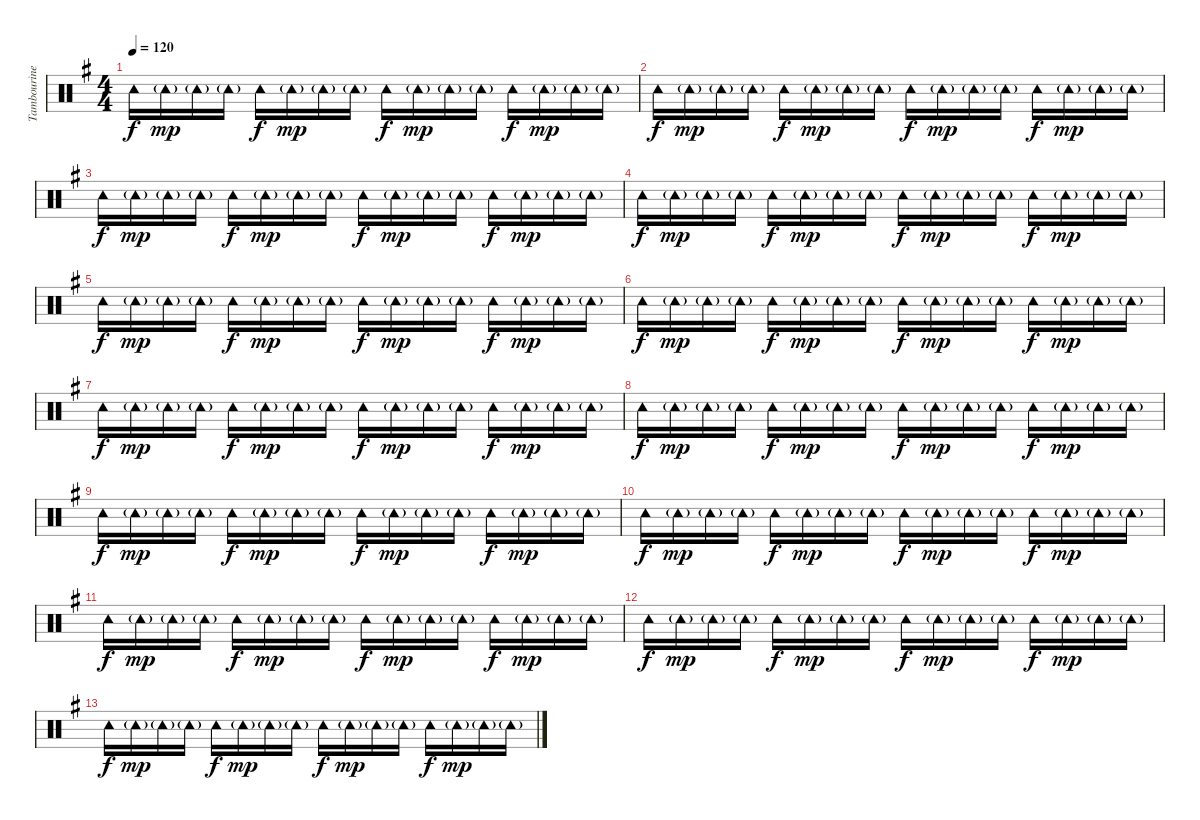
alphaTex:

\track ("Tambourine" "Tambourine") {instrument percussion}
\staff {score}
\articulation defaults
\ts (4 4)
\tempo 120
\clef neutral
\ks g "Tambourine (hit)".16{dy f} "Tambourine (hit)"{g}.16{dy mp} "Tambourine (hit)"{g}.16 "Tambourine (hit)"{g}.16 "Tambourine (hit)".16{dy f} "Tambourine (hit)"{g}.16{dy mp} "Tambourine (hit)"{g}.16 "Tambourine (hit)"{g}.16 "Tambourine (hit)".16{dy f} "Tambourine (hit)"{g}.16{dy mp} "Tambourine (hit)"{g}.16 "Tambourine (hit)"{g}.16 "Tambourine (hit)".16{dy f} "Tambourine (hit)"{g}.16{dy mp} "Tambourine (hit)"{g}.16 "Tambourine (hit)"{g}.16
|
"Tambourine (hit)".16{dy f} "Tambourine (hit)"{g}.16{dy mp} "Tambourine (hit)"{g}.16 "Tambourine (hit)"{g}.16 "Tambourine (hit)".16{dy f} "Tambourine (hit)"{g}.16{dy mp} "Tambourine (hit)"{g}.16 "Tambourine (hit)"{g}.16 "Tambourine (hit)".16{dy f} "Tambourine (hit)"{g}.16{dy mp} "Tambourine (hit)"{g}.16 "Tambourine (hit)"{g}.16 "Tambourine (hit)".16{dy f} "Tambourine (hit)"{g}.16{dy mp} "Tambourine (hit)"{g}.16 "Tambourine (hit)"{g}.16 |
"Tambourine (hit)".16{dy f} "Tambourine (hit)"{g}.16{dy mp} "Tambourine (hit)"{g}.16 "Tambourine (hit)"{g}.16 "Tambourine (hit)".16{dy f} "Tambourine (hit)"{g}.16{dy mp} "Tambourine (hit)"{g}.16 "Tambourine (hit)"{g}.16 "Tambourine (hit)".16{dy f} "Tambourine (hit)"{g}.16{dy mp} "Tambourine (hit)"{g}.16 "Tambourine (hit)"{g}.16 "Tambourine (hit)".16{dy f} "Tambourine (hit)"{g}.16{dy mp} "Tambourine (hit)"{g}.16 "Tambourine (hit)"{g}.16 |
"Tambourine (hit)".16{dy f} "Tambourine (hit)"{g}.16{dy mp} "Tambourine (hit)"{g}.16 "Tambourine (hit)"{g}.16 "Tambourine (hit)".16{dy f} "Tambourine (hit)"{g}.16{dy mp} "Tambourine (hit)"{g}.16 "Tambourine (hit)"{g}.16 "Tambourine (hit)".16{dy f} "Tambourine (hit)"{g}.16{dy mp} "Tambourine (hit)"{g}.16 "Tambourine (hit)"{g}.16 "Tambourine (hit)".16{dy f} "Tambourine (hit)"{g}.16{dy mp} "Tambourine (hit)"{g}.16 "Tambourine (hit)"{g}.16 |
"Tambourine (hit)".16{dy f} "Tambourine (hit)"{g}.16{dy mp} "Tambourine (hit)"{g}.16 "Tambourine (hit)"{g}.16 "Tambourine (hit)".16{dy f} "Tambourine (hit)"{g}.16{dy mp} "Tambourine (hit)"{g}.16 "Tambourine (hit)"{g}.16 "Tambourine (hit)".16{dy f} "Tambourine (hit)"{g}.16{dy mp} "Tambourine (hit)"{g}.16 "Tambourine (hit)"{g}.16 "Tambourine (hit)".16{dy f} "Tambourine (hit)"{g}.16{dy mp} "Tambourine (hit)"{g}.16 "Tambourine (hit)"{g}.16 |
"Tambourine (hit)".16{dy f} "Tambourine (hit)"{g}.16{dy mp} "Tambourine (hit)"{g}.16 "Tambourine (hit)"{g}.16 "Tambourine (hit)".16{dy f} "Tambourine (hit)"{g}.16{dy mp} "Tambourine (hit)"{g}.16 "Tambourine (hit)"{g}.16 "Tambourine (hit)".16{dy f} "Tambourine (hit)"{g}.16{dy mp} "Tambourine (hit)"{g}.16 "Tambourine (hit)"{g}.16 "Tambourine (hit)".16{dy f} "Tambourine (hit)"{g}.16{dy mp} "Tambourine (hit)"{g}.16 "Tambourine (hit)"{g}.16 |
"Tambourine (hit)".16{dy f} "Tambourine (hit)"{g}.16{dy mp} "Tambourine (hit)"{g}.16 "Tambourine (hit)"{g}.16 "Tambourine (hit)".16{dy f} "Tambourine (hit)"{g}.16{dy mp} "Tambourine (hit)"{g}.16 "Tambourine (hit)"{g}.16 "Tambourine (hit)".16{dy f} "Tambourine (hit)"{g}.16{dy mp} "Tambourine (hit)"{g}.16 "Tambourine (hit)"{g}.16 "Tambourine (hit)".16{dy f} "Tambourine (hit)"{g}.16{dy mp} "Tambourine (hit)"{g}.16 "Tambourine (hit)"{g}.16 |
"Tambourine (hit)".16{dy f} "Tambourine (hit)"{g}.16{dy mp} "Tambourine (hit)"{g}.16 "Tambourine (hit)"{g}.16 "Tambourine (hit)".16{dy f} "Tambourine (hit)"{g}.16{dy mp} "Tambourine (hit)"{g}.16 "Tambourine (hit)"{g}.16 "Tambourine (hit)".16{dy f} "Tambourine (hit)"{g}.16{dy mp} "Tambourine (hit)"{g}.16 "Tambourine (hit)"{g}.16 "Tambourine (hit)".16{dy f} "Tambourine (hit)"{g}.16{dy mp} "Tambourine (hit)"{g}.16 "Tambourine (hit)"{g}.16 |
"Tambourine (hit)".16{dy f} "Tambourine (hit)"{g}.16{dy mp} "Tambourine (hit)"{g}.16 "Tambourine (hit)"{g}.16 "Tambourine (hit)".16{dy f} "Tambourine (hit)"{g}.16{dy mp} "Tambourine (hit)"{g}.16 "Tambourine (hit)"{g}.16 "Tambourine (hit)".16{dy f} "Tambourine (hit)"{g}.16{dy mp} "Tambourine (hit)"{g}.16 "Tambourine (hit)"{g}.16 "Tambourine (hit)".16{dy f} "Tambourine (hit)"{g}.16{dy mp} "Tambourine (hit)"{g}.16 "Tambourine (hit)"{g}.16 |
"Tambourine (hit)".16{dy f} "Tambourine (hit)"{g}.16{dy mp} "Tambourine (hit)"{g}.16 "Tambourine (hit)"{g}.16 "Tambourine (hit)".16{dy f} "Tambourine (hit)"{g}.16{dy mp} "Tambourine (hit)"{g}.16 "Tambourine (hit)"{g}.16 "Tambourine (hit)".16{dy f} "Tambourine (hit)"{g}.16{dy mp} "Tambourine (hit)"{g}.16 "Tambourine (hit)"{g}.16 "Tambourine (hit)".16{dy f} "Tambourine (hit)"{g}.16{dy mp} "Tambourine (hit)"{g}.16 "Tambourine (hit)"{g}.16 |
"Tambourine (hit)".16{dy f} "Tambourine (hit)"{g}.16{dy mp} "Tambourine (hit)"{g}.16 "Tambourine (hit)"{g}.16 "Tambourine (hit)".16{dy f} "Tambourine (hit)"{g}.16{dy mp} "Tambourine (hit)"{g}.16 "Tambourine (hit)"{g}.16 "Tambourine (hit)".16{dy f} "Tambourine (hit)"{g}.16{dy mp} "Tambourine (hit)"{g}.16 "Tambourine (hit)"{g}.16 "Tambourine (hit)".16{dy f} "Tambourine (hit)"{g}.16{dy mp} "Tambourine (hit)"{g}.16 "Tambourine (hit)"{g}.16 |
"Tambourine (hit)".16{dy f} "Tambourine (hit)"{g}.16{dy mp} "Tambourine (hit)"{g}.16 "Tambourine (hit)"{g}.16 "Tambourine (hit)".16{dy f} "Tambourine (hit)"{g}.16{dy mp} "Tambourine (hit)"{g}.16 "Tambourine (hit)"{g}.16 "Tambourine (hit)".16{dy f} "Tambourine (hit)"{g}.16{dy mp} "Tambourine (hit)"{g}.16 "Tambourine (hit)"{g}.16 "Tambourine (hit)".16{dy f} "Tambourine (hit)"{g}.16{dy mp} "Tambourine (hit)"{g}.16 "Tambourine (hit)"{g}.16 |
"Tambourine (hit)".16{dy f} "Tambourine (hit)"{g}.16{dy mp} "Tambourine (hit)"{g}.16 "Tambourine (hit)"{g}.16 "Tambourine (hit)".16{dy f} "Tambourine (hit)"{g}.16{dy mp} "Tambourine (hit)"{g}.16 "Tambourine (hit)"{g}.16 "Tambourine (hit)".16{dy f} "Tambourine (hit)"{g}.16{dy mp} "Tambourine (hit)"{g}.16 "Tambourine (hit)"{g}.16 "Tambourine (hit)".16{dy f} "Tambourine (hit)"{g}.16{dy mp} "Tambourine (hit)"{g}.16 "Tambourine (hit)"{g}.16
